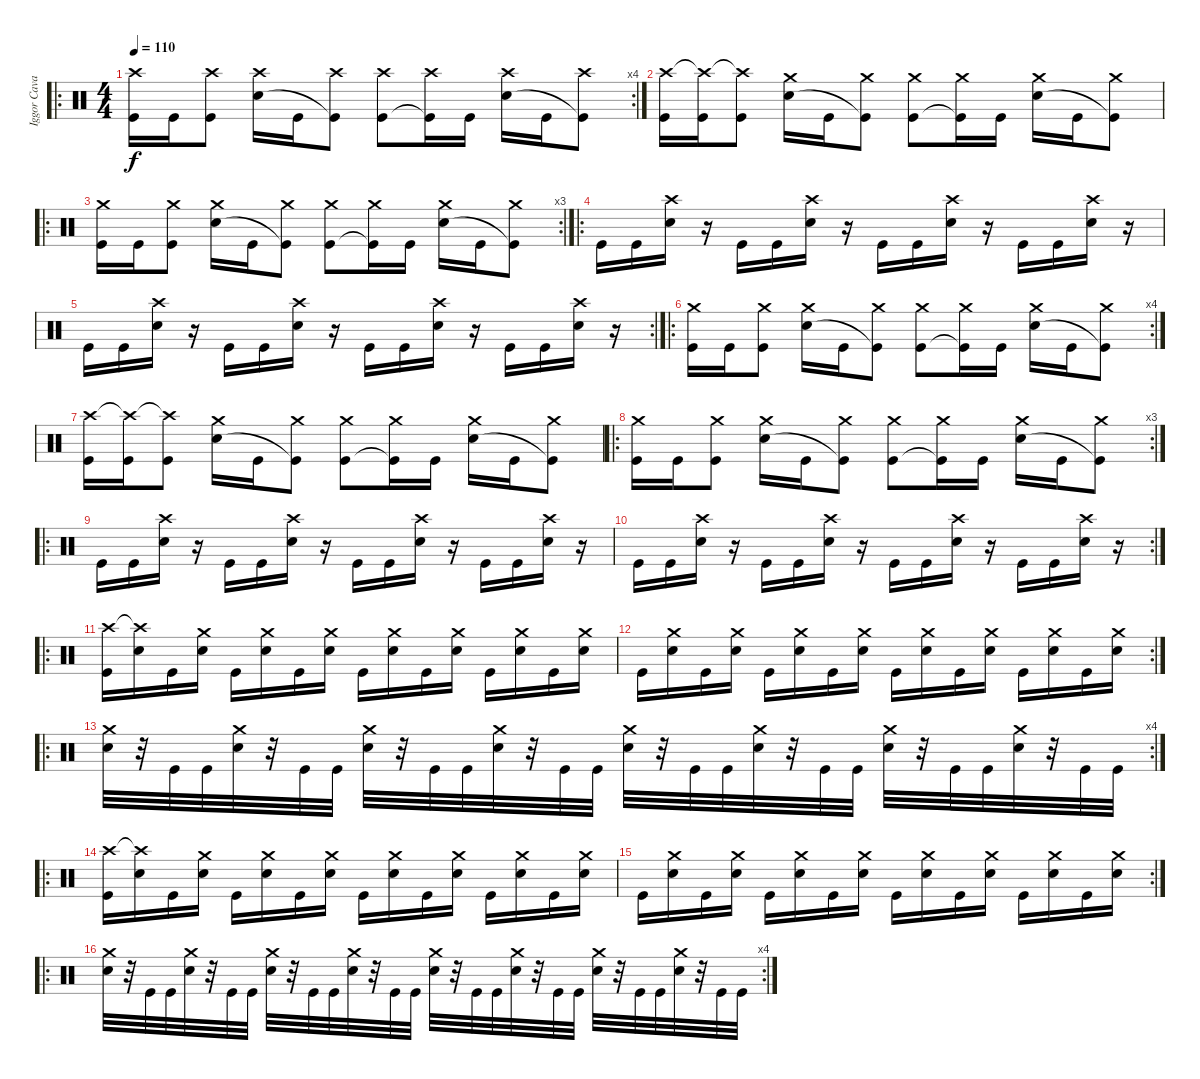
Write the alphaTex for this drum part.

\track ("Iggor Cavalera" "Iggor Cava") {instrument percussion}
\staff {score}
\articulation defaults
\ro
\rc 4
\ts (4 4)
\tempo 110
\clef neutral
\ks c
("Crash high (hit)" "Kick (hit)").16{dy f} "Kick (hit)".16 ("Crash high (hit)" "Kick (hit)").8 ("Crash high (hit)" "Snare (hit) 2").16 "Kick (hit)".16 ("Crash high (hit)" "Kick (hit)"{t}).8 ("Crash high (hit)" "Kick (hit)").8 ("Crash high (hit)" "Kick (hit)"{t}).16 "Kick (hit)".16 ("Crash high (hit)" "Snare (hit) 2").16 "Kick (hit)".16 ("Crash high (hit)" "Kick (hit)"{t}).8 |
("Crash high (hit)" "Kick (hit)").16 ("Crash high (hit)"{t} "Kick (hit)").16 ("Crash high (hit)"{t} "Kick (hit)").8 ("Crash medium (hit)" "Snare (hit) 2").16 "Kick (hit)".16 ("Crash medium (hit)" "Kick (hit)"{t}).8 ("Crash medium (hit)" "Kick (hit)").8 ("Crash medium (hit)" "Kick (hit)"{t}).16 "Kick (hit)".16 ("Crash medium (hit)" "Snare (hit) 2").16 "Kick (hit)".16 ("Crash medium (hit)" "Kick (hit)"{t}).8 |
\ro
\rc 3
("Crash medium (hit)" "Kick (hit)").16 "Kick (hit)".16 ("Crash medium (hit)" "Kick (hit)").8 ("Crash medium (hit)" "Snare (hit) 2").16 "Kick (hit)".16 ("Crash medium (hit)" "Kick (hit)"{t}).8 ("Crash medium (hit)" "Kick (hit)").8 ("Crash medium (hit)" "Kick (hit)"{t}).16 "Kick (hit)".16 ("Crash medium (hit)" "Snare (hit) 2").16 "Kick (hit)".16 ("Crash medium (hit)" "Kick (hit)"{t}).8 |
\ro "Kick (hit)".16 "Kick (hit)".16
("Crash high (hit)" "Snare (hit) 2").16 r.16 "Kick (hit)".16 "Kick (hit)".16 ("Crash high (hit)" "Snare (hit) 2").16 r.16 "Kick (hit)".16 "Kick (hit)".16 ("Crash high (hit)" "Snare (hit) 2").16 r.16 "Kick (hit)".16 "Kick (hit)".16 ("Crash high (hit)" "Snare (hit) 2").16 r.16 |
\rc 2 "Kick (hit)".16 "Kick (hit)".16
("Crash high (hit)" "Snare (hit) 2").16 r.16 "Kick (hit)".16 "Kick (hit)".16 ("Crash high (hit)" "Snare (hit) 2").16 r.16 "Kick (hit)".16 "Kick (hit)".16 ("Crash high (hit)" "Snare (hit) 2").16 r.16 "Kick (hit)".16 "Kick (hit)".16 ("Crash high (hit)" "Snare (hit) 2").16 r.16 |
\ro
\rc 4
("Crash medium (hit)" "Kick (hit)").16 "Kick (hit)".16 ("Crash medium (hit)" "Kick (hit)").8 ("Crash medium (hit)" "Snare (hit) 2").16 "Kick (hit)".16 ("Crash medium (hit)" "Kick (hit)"{t}).8 ("Crash medium (hit)" "Kick (hit)").8 ("Crash medium (hit)" "Kick (hit)"{t}).16 "Kick (hit)".16 ("Crash medium (hit)" "Snare (hit) 2").16 "Kick (hit)".16 ("Crash medium (hit)" "Kick (hit)"{t}).8 |
("Crash high (hit)" "Kick (hit)").16 ("Crash high (hit)"{t} "Kick (hit)").16 ("Crash high (hit)"{t} "Kick (hit)").8 ("Crash medium (hit)" "Snare (hit) 2").16 "Kick (hit)".16 ("Crash medium (hit)" "Kick (hit)"{t}).8 ("Crash medium (hit)" "Kick (hit)").8 ("Crash medium (hit)" "Kick (hit)"{t}).16 "Kick (hit)".16 ("Crash medium (hit)" "Snare (hit) 2").16 "Kick (hit)".16 ("Crash medium (hit)" "Kick (hit)"{t}).8 |
\ro
\rc 3
("Crash medium (hit)" "Kick (hit)").16 "Kick (hit)".16 ("Crash medium (hit)" "Kick (hit)").8 ("Crash medium (hit)" "Snare (hit) 2").16 "Kick (hit)".16 ("Crash medium (hit)" "Kick (hit)"{t}).8 ("Crash medium (hit)" "Kick (hit)").8 ("Crash medium (hit)" "Kick (hit)"{t}).16 "Kick (hit)".16 ("Crash medium (hit)" "Snare (hit) 2").16 "Kick (hit)".16 ("Crash medium (hit)" "Kick (hit)"{t}).8 |
\ro "Kick (hit)".16 "Kick (hit)".16
("Crash high (hit)" "Snare (hit) 2").16 r.16 "Kick (hit)".16 "Kick (hit)".16 ("Crash high (hit)" "Snare (hit) 2").16 r.16 "Kick (hit)".16 "Kick (hit)".16 ("Crash high (hit)" "Snare (hit) 2").16 r.16 "Kick (hit)".16 "Kick (hit)".16 ("Crash high (hit)" "Snare (hit) 2").16 r.16 |
\rc 2 "Kick (hit)".16 "Kick (hit)".16
("Crash high (hit)" "Snare (hit) 2").16 r.16 "Kick (hit)".16 "Kick (hit)".16 ("Crash high (hit)" "Snare (hit) 2").16 r.16 "Kick (hit)".16 "Kick (hit)".16 ("Crash high (hit)" "Snare (hit) 2").16 r.16 "Kick (hit)".16 "Kick (hit)".16 ("Crash high (hit)" "Snare (hit) 2").16 r.16 |
\ro
("Crash high (hit)" "Kick (hit)").16 ("Crash high (hit)"{t} "Snare (hit) 2").16 "Kick (hit)".16 ("Crash medium (hit)" "Snare (hit) 2").16 "Kick (hit)".16 ("Crash medium (hit)" "Snare (hit) 2").16 "Kick (hit)".16 ("Crash medium (hit)" "Snare (hit) 2").16 "Kick (hit)".16 ("Crash medium (hit)" "Snare (hit) 2").16 "Kick (hit)".16 ("Crash medium (hit)" "Snare (hit) 2").16 "Kick (hit)".16 ("Crash medium (hit)" "Snare (hit) 2").16 "Kick (hit)".16 ("Crash medium (hit)" "Snare (hit) 2").16 |
\rc 2 "Kick (hit)".16
("Crash medium (hit)" "Snare (hit) 2").16 "Kick (hit)".16 ("Crash medium (hit)" "Snare (hit) 2").16 "Kick (hit)".16 ("Crash medium (hit)" "Snare (hit) 2").16 "Kick (hit)".16 ("Crash medium (hit)" "Snare (hit) 2").16 "Kick (hit)".16 ("Crash medium (hit)" "Snare (hit) 2").16 "Kick (hit)".16 ("Crash medium (hit)" "Snare (hit) 2").16 "Kick (hit)".16 ("Crash medium (hit)" "Snare (hit) 2").16 "Kick (hit)".16 ("Crash medium (hit)" "Snare (hit) 2").16 |
\ro
\rc 4
("Crash medium (hit)" "Snare (hit) 2").32 r.32 "Kick (hit)".32 "Kick (hit)".32 ("Crash medium (hit)" "Snare (hit) 2").32 r.32 "Kick (hit)".32 "Kick (hit)".32 ("Crash medium (hit)" "Snare (hit) 2").32 r.32 "Kick (hit)".32 "Kick (hit)".32 ("Crash medium (hit)" "Snare (hit) 2").32 r.32 "Kick (hit)".32 "Kick (hit)".32 ("Crash medium (hit)" "Snare (hit) 2").32 r.32 "Kick (hit)".32 "Kick (hit)".32 ("Crash medium (hit)" "Snare (hit) 2").32 r.32 "Kick (hit)".32 "Kick (hit)".32 ("Crash medium (hit)" "Snare (hit) 2").32 r.32 "Kick (hit)".32 "Kick (hit)".32 ("Crash medium (hit)" "Snare (hit) 2").32 r.32 "Kick (hit)".32 "Kick (hit)".32 |
\ro
("Crash high (hit)" "Kick (hit)").16 ("Crash high (hit)"{t} "Snare (hit) 2").16 "Kick (hit)".16 ("Crash medium (hit)" "Snare (hit) 2").16 "Kick (hit)".16 ("Crash medium (hit)" "Snare (hit) 2").16 "Kick (hit)".16 ("Crash medium (hit)" "Snare (hit) 2").16 "Kick (hit)".16 ("Crash medium (hit)" "Snare (hit) 2").16 "Kick (hit)".16 ("Crash medium (hit)" "Snare (hit) 2").16 "Kick (hit)".16 ("Crash medium (hit)" "Snare (hit) 2").16 "Kick (hit)".16 ("Crash medium (hit)" "Snare (hit) 2").16 |
\rc 2 "Kick (hit)".16
("Crash medium (hit)" "Snare (hit) 2").16 "Kick (hit)".16 ("Crash medium (hit)" "Snare (hit) 2").16 "Kick (hit)".16 ("Crash medium (hit)" "Snare (hit) 2").16 "Kick (hit)".16 ("Crash medium (hit)" "Snare (hit) 2").16 "Kick (hit)".16 ("Crash medium (hit)" "Snare (hit) 2").16 "Kick (hit)".16 ("Crash medium (hit)" "Snare (hit) 2").16 "Kick (hit)".16 ("Crash medium (hit)" "Snare (hit) 2").16 "Kick (hit)".16 ("Crash medium (hit)" "Snare (hit) 2").16 |
\ro
\rc 4
("Crash medium (hit)" "Snare (hit) 2").32 r.32 "Kick (hit)".32 "Kick (hit)".32 ("Crash medium (hit)" "Snare (hit) 2").32 r.32 "Kick (hit)".32 "Kick (hit)".32 ("Crash medium (hit)" "Snare (hit) 2").32 r.32 "Kick (hit)".32 "Kick (hit)".32 ("Crash medium (hit)" "Snare (hit) 2").32 r.32 "Kick (hit)".32 "Kick (hit)".32 ("Crash medium (hit)" "Snare (hit) 2").32 r.32 "Kick (hit)".32 "Kick (hit)".32 ("Crash medium (hit)" "Snare (hit) 2").32 r.32 "Kick (hit)".32 "Kick (hit)".32 ("Crash medium (hit)" "Snare (hit) 2").32 r.32 "Kick (hit)".32 "Kick (hit)".32 ("Crash medium (hit)" "Snare (hit) 2").32 r.32 "Kick (hit)".32 "Kick (hit)".32
